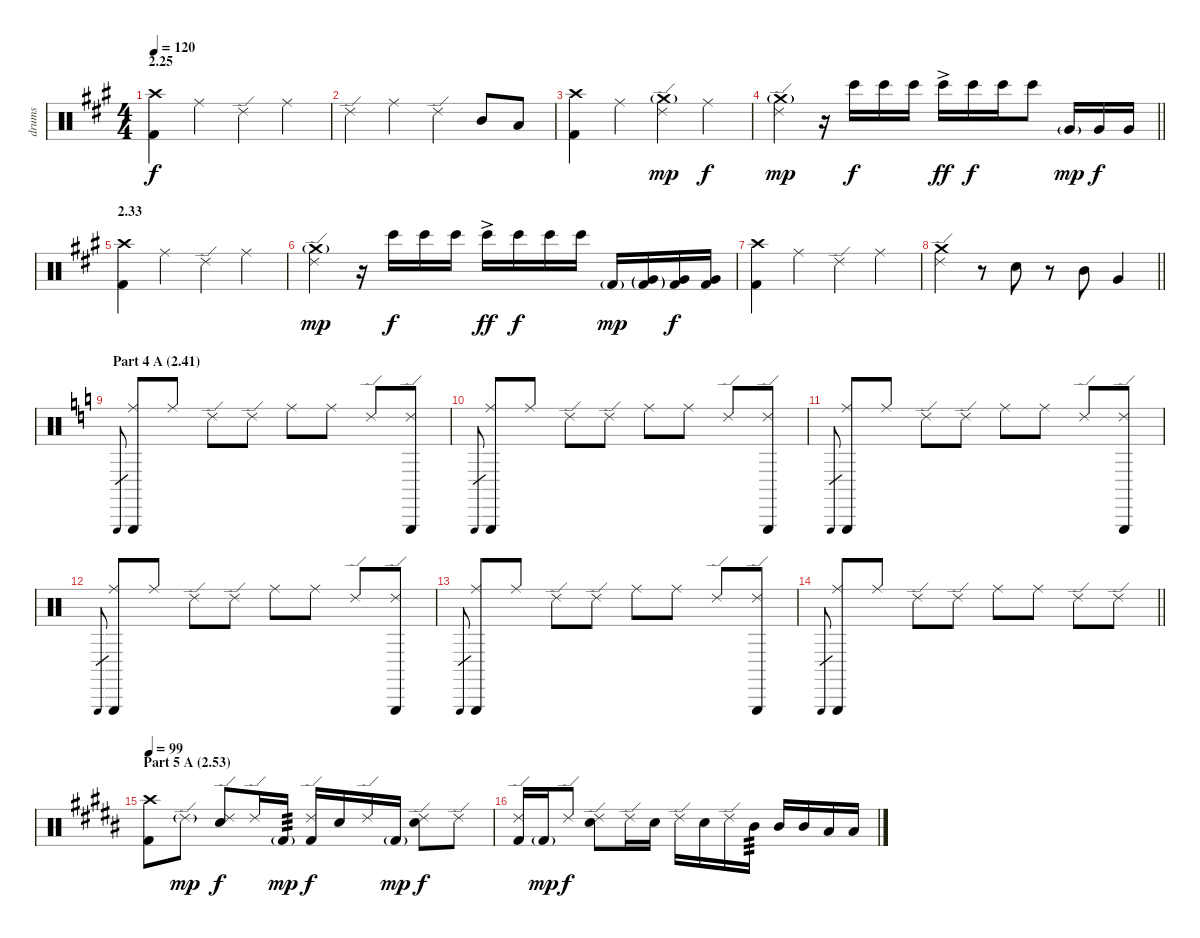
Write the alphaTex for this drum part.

\track ("drums" "drums") {instrument percussion}
\staff {score}
\articulation defaults
\ts (4 4)
\section ("" "2.25")
\tempo 120
\clef neutral
\ks a
("Crash high (hit)" "Kick (hit) 2").4{dy f} "Ride (middle)".4 "Ride (edge) 2".4 "Ride (middle)".4 |
"Ride (edge) 2".4 "Ride (middle)".4 "Ride (edge) 2".4 "Mid Tom (hit)".8 "Low Tom (hit)".8 |
("Crash high (hit)" "Kick (hit) 2").4 "Ride (middle)".4 ("Ride (edge) 2" "Crash medium (hit)"{g}).4{dy mp} "Ride (middle)".4{dy f} |
\barLineRight lightlight
("Ride (edge) 2" "Crash medium (hit)"{g}).4{dy mp} r.16 "Bongo High (hit)".16{dy f} "Bongo High (hit)".16 "Bongo High (hit)".16 "Bongo High (hit)"{ac}.16{dy ff} "Bongo High (hit)".16{dy f} "Bongo High (hit)".16 "Bongo High (hit)".8 "Very Low Tom (hit)"{g}.16{dy mp} "Very Low Tom (hit)".16{dy f} "Very Low Tom (hit)".16 |
\section ("" "2.33")
("Crash high (hit)" "Kick (hit) 2").4 "Ride (middle)".4 "Ride (edge) 2".4 "Ride (middle)".4 |
("Ride (edge) 2" "Crash medium (hit)"{g}).4{dy mp} r.16 "Bongo High (hit)".16{dy f} "Bongo High (hit)".16 "Bongo High (hit)".16 "Bongo High (hit)"{ac}.16{dy ff} "Bongo High (hit)".16{dy f} "Bongo High (hit)".16 "Bongo High (hit)".16 "Kick (hit) 2"{g}.16{dy mp} ("Very Low Tom (hit)"{g} "Kick (hit) 2"{g}).16 ("Very Low Tom (hit)" "Kick (hit) 2").16{dy f} ("Very Low Tom (hit)" "Kick (hit) 2").16 |
("Crash high (hit)" "Kick (hit) 2").4 "Ride (middle)".4 "Ride (edge) 2".4 "Ride (middle)".4 |
\barLineRight lightlight
("Ride (edge) 2" "Crash medium (hit)").4 r.8 "Electric Snare (hit)".8 r.8 "Mid Tom (hit)".8 "Very Low Tom (hit)".4 |
\section ("" "Part 4 A (2.41)")
\ks c "Triangle (hit)".8{gr}
("Ride (middle)" "Triangle (hit)").8 "Ride (middle)".8 "Ride (edge) 2".8 "Ride (edge) 2".8 "Ride (middle)".8 "Ride (middle)".8 "Ride (edge) 2".8 ("Ride (edge) 2" "Triangle (hit)").8 |
"Triangle (hit)".8{gr} ("Ride (middle)" "Triangle (hit)").8 "Ride (middle)".8 "Ride (edge) 2".8 "Ride (edge) 2".8 "Ride (middle)".8 "Ride (middle)".8 "Ride (edge) 2".8 ("Ride (edge) 2" "Triangle (hit)").8 |
"Triangle (hit)".8{gr} ("Ride (middle)" "Triangle (hit)").8 "Ride (middle)".8 "Ride (edge) 2".8 "Ride (edge) 2".8 "Ride (middle)".8 "Ride (middle)".8 "Ride (edge) 2".8 ("Ride (edge) 2" "Triangle (hit)").8 |
"Triangle (hit)".8{gr} ("Ride (middle)" "Triangle (hit)").8 "Ride (middle)".8 "Ride (edge) 2".8 "Ride (edge) 2".8 "Ride (middle)".8 "Ride (middle)".8 "Ride (edge) 2".8 ("Ride (edge) 2" "Triangle (hit)").8 |
"Triangle (hit)".8{gr} ("Ride (middle)" "Triangle (hit)").8 "Ride (middle)".8 "Ride (edge) 2".8 "Ride (edge) 2".8 "Ride (middle)".8 "Ride (middle)".8 "Ride (edge) 2".8 ("Ride (edge) 2" "Triangle (hit)").8 |
\barLineRight lightlight "Triangle (hit)".8{gr}
("Ride (middle)" "Triangle (hit)").8 "Ride (middle)".8 "Ride (edge) 2".8 "Ride (edge) 2".8 "Ride (middle)".8 "Ride (middle)".8 "Ride (edge) 2".8 "Ride (edge) 2".8 |
\section ("" "Part 5 A (2.53)")
\tempo 99
\ks b
("Crash high (hit)" "Kick (hit) 2").8 "Ride (edge) 2"{g}.8{dy mp} ("Ride (edge) 2" "Electric Snare (hit)").8{dy f} "Ride (edge) 2".16 "Kick (hit) 2"{g}.16{tp 3 dy mp} ("Ride (edge) 2" "Kick (hit) 2").16{dy f} "Electric Snare (hit)".16 "Ride (edge) 2".16 "Kick (hit) 2"{g}.16{dy mp} ("Ride (edge) 2" "Electric Snare (hit)").8{dy f} "Ride (edge) 2".8 |
("Ride (edge) 2" "Kick (hit) 2").16 "Kick (hit) 2"{g}.16{dy mp} "Ride (edge) 2".8{dy f} ("Ride (edge) 2" "Electric Snare (hit)").8 "Ride (edge) 2".16 "Electric Snare (hit)".16 "Ride (edge) 2".16 "Electric Snare (hit)".16 "Ride (edge) 2".16 "Mid Tom (hit)".16{tp 3} "Mid Tom (hit)".16 "Mid Tom (hit)".16 "Low Tom (hit)".16 "Low Tom (hit)".16
